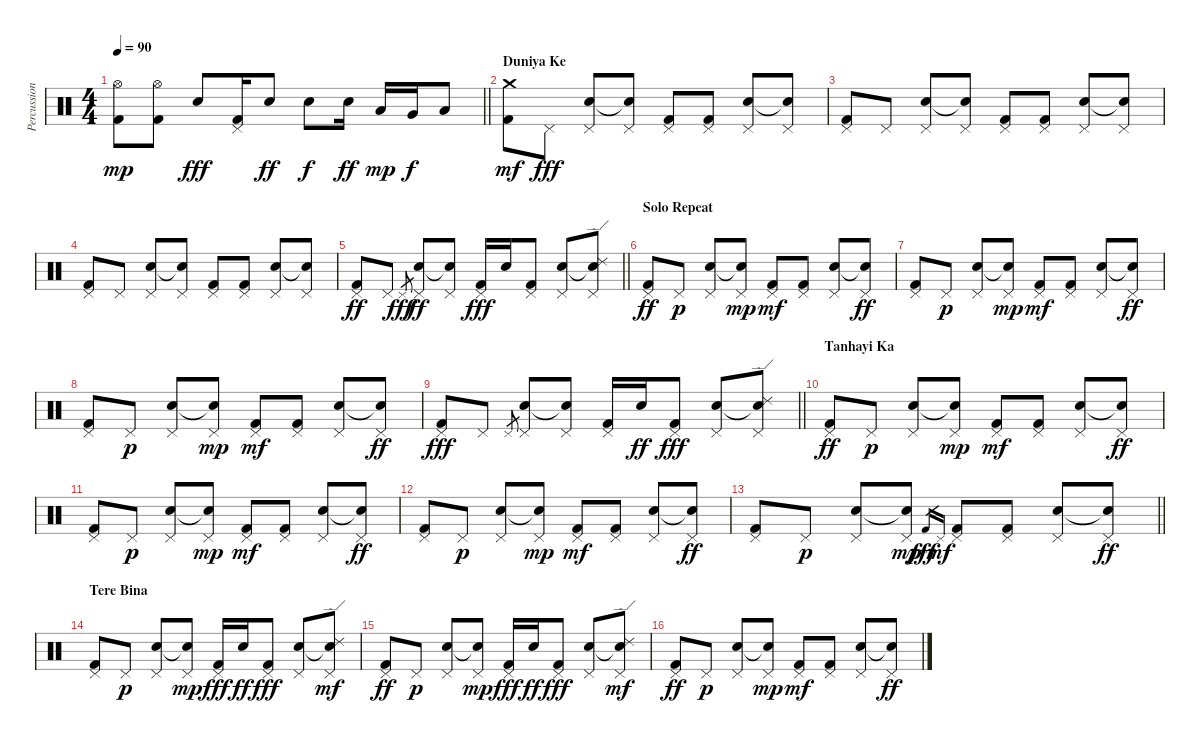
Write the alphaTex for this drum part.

\track ("Percussion" "Percussion") {instrument percussion}
\staff {score}
\articulation defaults
\ts (4 4)
\tempo 90
\clef neutral
\barLineRight lightlight
\ks c
("Kick (hit) 2" "Hi-Hat (open)").8{dy mp} ("Kick (hit) 2" "Hi-Hat (open)").8 "Electric Snare (hit)".8{dy fff} ("Kick (hit) 2" "Pedal Hi-Hat (hit)").16 "Electric Snare (hit)".8{dy ff} "Electric Snare (hit)".8{dy f} "Electric Snare (hit)".16{dy ff} "Low Floor Tom (hit)".16{dy mp} "Very Low Tom (hit)".16{dy f} "Low Tom (hit)".8 |
\section ("" "Duniya Ke ")
("Kick (hit) 2" "Crash medium (hit)").8{dy mf} "Pedal Hi-Hat (hit)".8{dy fff} ("Electric Snare (hit)" "Pedal Hi-Hat (hit)").8 ("Snare (hit)"{t} "Pedal Hi-Hat (hit)").8 ("Kick (hit) 2" "Pedal Hi-Hat (hit)").8 ("Kick (hit) 2" "Pedal Hi-Hat (hit)").8 ("Electric Snare (hit)" "Pedal Hi-Hat (hit)").8 ("Snare (hit)"{t} "Pedal Hi-Hat (hit)").8 |
("Kick (hit) 2" "Pedal Hi-Hat (hit)").8 "Pedal Hi-Hat (hit)".8 ("Electric Snare (hit)" "Pedal Hi-Hat (hit)").8 ("Snare (hit)"{t} "Pedal Hi-Hat (hit)").8 ("Kick (hit) 2" "Pedal Hi-Hat (hit)").8 ("Kick (hit) 2" "Pedal Hi-Hat (hit)").8 ("Electric Snare (hit)" "Pedal Hi-Hat (hit)").8 ("Snare (hit)"{t} "Pedal Hi-Hat (hit)").8 |
("Kick (hit) 2" "Pedal Hi-Hat (hit)").8 "Pedal Hi-Hat (hit)".8 ("Electric Snare (hit)" "Pedal Hi-Hat (hit)").8 ("Snare (hit)"{t} "Pedal Hi-Hat (hit)").8 ("Kick (hit) 2" "Pedal Hi-Hat (hit)").8 ("Kick (hit) 2" "Pedal Hi-Hat (hit)").8 ("Electric Snare (hit)" "Pedal Hi-Hat (hit)").8 ("Snare (hit)"{t} "Pedal Hi-Hat (hit)").8 |
\barLineRight lightlight
("Kick (hit) 2" "Pedal Hi-Hat (hit)").8{dy ff} "Pedal Hi-Hat (hit)".8 "Pedal Hi-Hat (hit)".8{gr dy fff} ("Electric Snare (hit)" "Pedal Hi-Hat (hit)").8{dy ff} ("Snare (hit)"{t} "Pedal Hi-Hat (hit)").8 ("Kick (hit) 2" "Pedal Hi-Hat (hit)").16{dy fff} "Electric Snare (hit)".16 ("Kick (hit) 2" "Pedal Hi-Hat (hit)").8 ("Electric Snare (hit)" "Pedal Hi-Hat (hit)").8 ("Snare (hit)"{t} "Pedal Hi-Hat (hit)" "Ride (edge) 2").8 |
\section ("" "Solo Repeat")
("Kick (hit) 2" "Pedal Hi-Hat (hit)").8{dy ff} "Pedal Hi-Hat (hit)".8{dy p} ("Electric Snare (hit)" "Pedal Hi-Hat (hit)").8 ("Snare (hit)"{t} "Pedal Hi-Hat (hit)").8{dy mp} ("Kick (hit) 2" "Pedal Hi-Hat (hit)").8{dy mf} ("Kick (hit) 2" "Pedal Hi-Hat (hit)").8 ("Electric Snare (hit)" "Pedal Hi-Hat (hit)").8 ("Snare (hit)"{t} "Pedal Hi-Hat (hit)").8{dy ff} |
("Kick (hit) 2" "Pedal Hi-Hat (hit)").8 "Pedal Hi-Hat (hit)".8{dy p} ("Electric Snare (hit)" "Pedal Hi-Hat (hit)").8 ("Snare (hit)"{t} "Pedal Hi-Hat (hit)").8{dy mp} ("Kick (hit) 2" "Pedal Hi-Hat (hit)").8{dy mf} ("Kick (hit) 2" "Pedal Hi-Hat (hit)").8 ("Electric Snare (hit)" "Pedal Hi-Hat (hit)").8 ("Snare (hit)"{t} "Pedal Hi-Hat (hit)").8{dy ff} |
("Kick (hit) 2" "Pedal Hi-Hat (hit)").8 "Pedal Hi-Hat (hit)".8{dy p} ("Electric Snare (hit)" "Pedal Hi-Hat (hit)").8 ("Snare (hit)"{t} "Pedal Hi-Hat (hit)").8{dy mp} ("Kick (hit) 2" "Pedal Hi-Hat (hit)").8{dy mf} ("Kick (hit) 2" "Pedal Hi-Hat (hit)").8 ("Electric Snare (hit)" "Pedal Hi-Hat (hit)").8 ("Snare (hit)"{t} "Pedal Hi-Hat (hit)").8{dy ff} |
\barLineRight lightlight
("Kick (hit) 2" "Pedal Hi-Hat (hit)").8{dy fff} "Pedal Hi-Hat (hit)".8 "Pedal Hi-Hat (hit)".8{gr} ("Electric Snare (hit)" "Pedal Hi-Hat (hit)").8 ("Snare (hit)"{t} "Pedal Hi-Hat (hit)").8 ("Kick (hit) 2" "Pedal Hi-Hat (hit)").16 "Electric Snare (hit)".16{dy ff} ("Kick (hit) 2" "Pedal Hi-Hat (hit)").8{dy fff} ("Electric Snare (hit)" "Pedal Hi-Hat (hit)").8 ("Snare (hit)"{t} "Pedal Hi-Hat (hit)" "Ride (edge) 2").8 |
\section ("" "Tanhayi Ka")
("Kick (hit) 2" "Pedal Hi-Hat (hit)").8{dy ff} "Pedal Hi-Hat (hit)".8{dy p} ("Electric Snare (hit)" "Pedal Hi-Hat (hit)").8 ("Snare (hit)"{t} "Pedal Hi-Hat (hit)").8{dy mp} ("Kick (hit) 2" "Pedal Hi-Hat (hit)").8{dy mf} ("Kick (hit) 2" "Pedal Hi-Hat (hit)").8 ("Electric Snare (hit)" "Pedal Hi-Hat (hit)").8 ("Snare (hit)"{t} "Pedal Hi-Hat (hit)").8{dy ff} |
("Kick (hit) 2" "Pedal Hi-Hat (hit)").8 "Pedal Hi-Hat (hit)".8{dy p} ("Electric Snare (hit)" "Pedal Hi-Hat (hit)").8 ("Snare (hit)"{t} "Pedal Hi-Hat (hit)").8{dy mp} ("Kick (hit) 2" "Pedal Hi-Hat (hit)").8{dy mf} ("Kick (hit) 2" "Pedal Hi-Hat (hit)").8 ("Electric Snare (hit)" "Pedal Hi-Hat (hit)").8 ("Snare (hit)"{t} "Pedal Hi-Hat (hit)").8{dy ff} |
("Kick (hit) 2" "Pedal Hi-Hat (hit)").8 "Pedal Hi-Hat (hit)".8{dy p} ("Electric Snare (hit)" "Pedal Hi-Hat (hit)").8 ("Snare (hit)"{t} "Pedal Hi-Hat (hit)").8{dy mp} ("Kick (hit) 2" "Pedal Hi-Hat (hit)").8{dy mf} ("Kick (hit) 2" "Pedal Hi-Hat (hit)").8 ("Electric Snare (hit)" "Pedal Hi-Hat (hit)").8 ("Snare (hit)"{t} "Pedal Hi-Hat (hit)").8{dy ff} |
\barLineRight lightlight
("Kick (hit) 2" "Pedal Hi-Hat (hit)").8 "Pedal Hi-Hat (hit)".8{dy p} ("Electric Snare (hit)" "Pedal Hi-Hat (hit)").8 ("Snare (hit)"{t} "Pedal Hi-Hat (hit)").8{dy mp} "Kick (hit) 2".16{gr dy fff} "Pedal Hi-Hat (hit)".16{gr dy mf} ("Kick (hit) 2" "Pedal Hi-Hat (hit)").8 ("Kick (hit) 2" "Pedal Hi-Hat (hit)").8 ("Electric Snare (hit)" "Pedal Hi-Hat (hit)").8 ("Snare (hit)"{t} "Pedal Hi-Hat (hit)").8{dy ff} |
\section ("" "Tere Bina")
("Kick (hit) 2" "Pedal Hi-Hat (hit)").8 "Pedal Hi-Hat (hit)".8{dy p} ("Electric Snare (hit)" "Pedal Hi-Hat (hit)").8 ("Snare (hit)"{t} "Pedal Hi-Hat (hit)").8{dy mp} ("Kick (hit) 2" "Pedal Hi-Hat (hit)").16{dy fff} "Electric Snare (hit)".16{dy ff} ("Kick (hit) 2" "Pedal Hi-Hat (hit)").8{dy fff} ("Electric Snare (hit)" "Pedal Hi-Hat (hit)").8 ("Snare (hit)"{t} "Pedal Hi-Hat (hit)" "Ride (edge) 2").8{dy mf} |
("Kick (hit) 2" "Pedal Hi-Hat (hit)").8{dy ff} "Pedal Hi-Hat (hit)".8{dy p} ("Electric Snare (hit)" "Pedal Hi-Hat (hit)").8 ("Snare (hit)"{t} "Pedal Hi-Hat (hit)").8{dy mp} ("Kick (hit) 2" "Pedal Hi-Hat (hit)").16{dy fff} "Electric Snare (hit)".16{dy ff} ("Kick (hit) 2" "Pedal Hi-Hat (hit)").8{dy fff} ("Electric Snare (hit)" "Pedal Hi-Hat (hit)").8 ("Snare (hit)"{t} "Pedal Hi-Hat (hit)" "Ride (edge) 2").8{dy mf} |
("Kick (hit) 2" "Pedal Hi-Hat (hit)").8{dy ff} "Pedal Hi-Hat (hit)".8{dy p} ("Electric Snare (hit)" "Pedal Hi-Hat (hit)").8 ("Snare (hit)"{t} "Pedal Hi-Hat (hit)").8{dy mp} ("Kick (hit) 2" "Pedal Hi-Hat (hit)").8{dy mf} ("Kick (hit) 2" "Pedal Hi-Hat (hit)").8 ("Electric Snare (hit)" "Pedal Hi-Hat (hit)").8 ("Snare (hit)"{t} "Pedal Hi-Hat (hit)").8{dy ff}
